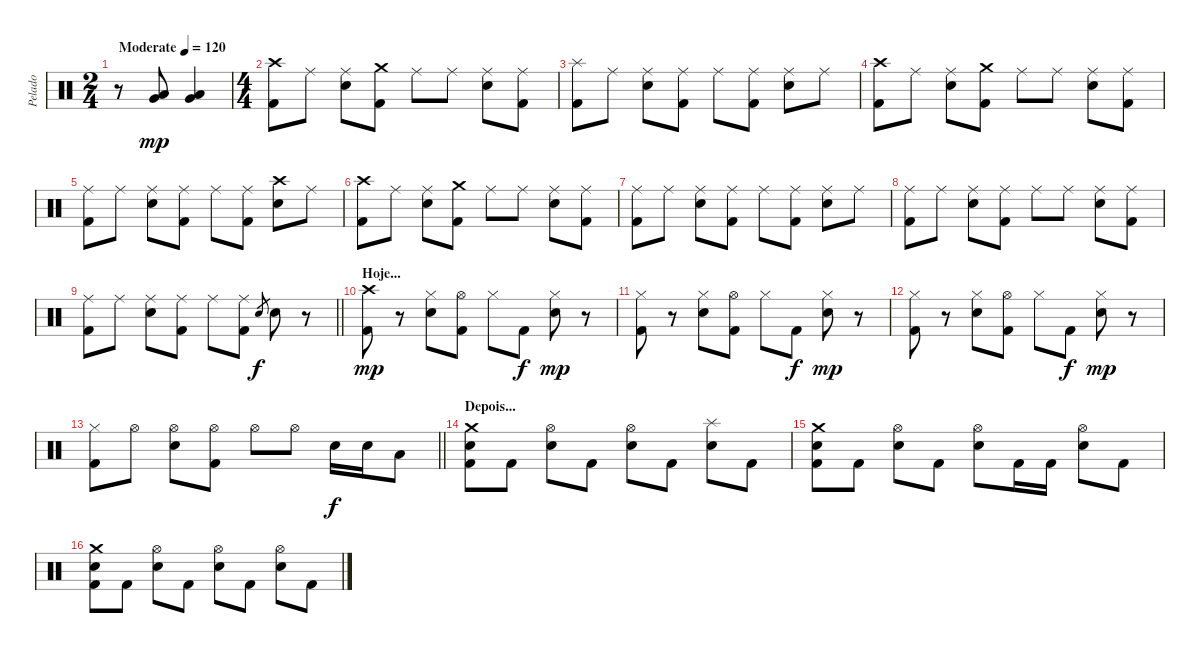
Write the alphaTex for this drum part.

\track ("Pelado" "Pelado") {instrument percussion}
\staff {score}
\articulation defaults
\ts (2 4)
\tempo (120 "Moderate")
\clef neutral
\ks c
r.8{dy mp} ("Low Tom (hit)" "Very Low Tom (hit)").8 ("Low Tom (hit)" "Very Low Tom (hit)").4 |
\ts (4 4)
("Crash high (hit)" "Kick (hit) 2").8 "Ride (middle)".8 ("Ride (middle)" "Electric Snare (hit)").8 ("Crash medium (hit)" "Kick (hit) 2").8 "Ride (middle)".8 "Ride (middle)".8 ("Ride (middle)" "Electric Snare (hit)").8 ("Ride (middle)" "Kick (hit) 2").8 |
("Splash (hit)" "Kick (hit) 2").8 "Ride (middle)".8 ("Ride (middle)" "Electric Snare (hit)").8 ("Ride (middle)" "Kick (hit) 2").8 "Ride (middle)".8 ("Ride (middle)" "Kick (hit) 2").8 ("Ride (middle)" "Electric Snare (hit)").8 "Ride (middle)".8 |
("Crash high (hit)" "Kick (hit) 2").8 "Ride (middle)".8 ("Ride (middle)" "Electric Snare (hit)").8 ("Crash medium (hit)" "Kick (hit) 2").8 "Ride (middle)".8 "Ride (middle)".8 ("Ride (middle)" "Electric Snare (hit)").8 ("Ride (middle)" "Kick (hit) 2").8 |
("Ride (middle)" "Kick (hit) 2").8 "Ride (middle)".8 ("Ride (middle)" "Electric Snare (hit)").8 ("Ride (middle)" "Kick (hit) 2").8 "Ride (middle)".8 ("Ride (middle)" "Kick (hit) 2").8 ("Crash high (hit)" "Electric Snare (hit)").8 "Ride (middle)".8 |
("Crash high (hit)" "Kick (hit) 2").8 "Ride (middle)".8 ("Ride (middle)" "Electric Snare (hit)").8 ("Crash medium (hit)" "Kick (hit) 2").8 "Ride (middle)".8 "Ride (middle)".8 ("Ride (middle)" "Electric Snare (hit)").8 ("Ride (middle)" "Kick (hit) 2").8 |
("Ride (middle)" "Kick (hit) 2").8 "Ride (middle)".8 ("Ride (middle)" "Electric Snare (hit)").8 ("Ride (middle)" "Kick (hit) 2").8 "Ride (middle)".8 ("Ride (middle)" "Kick (hit) 2").8 ("Ride (middle)" "Electric Snare (hit)").8 "Ride (middle)".8 |
("Ride (middle)" "Kick (hit) 2").8 "Ride (middle)".8 ("Ride (middle)" "Electric Snare (hit)").8 ("Ride (middle)" "Kick (hit) 2").8 "Ride (middle)".8 "Ride (middle)".8 ("Ride (middle)" "Electric Snare (hit)").8 ("Ride (middle)" "Kick (hit) 2").8 |
\barLineRight lightlight
("Ride (middle)" "Kick (hit) 2").8 "Ride (middle)".8 ("Ride (middle)" "Electric Snare (hit)").8 ("Ride (middle)" "Kick (hit) 2").8 "Ride (middle)".8 ("Ride (middle)" "Kick (hit) 2").8 "Electric Snare (hit)".8{gr dy f} "Electric Snare (hit)".8 r.8 |
\section ("" "Hoje...")
("Crash high (hit)" "Kick (hit) 2").8{dy mp} r.8 ("Hi-Hat (closed)" "Electric Snare (hit)").8 ("Hi-Hat (open)" "Kick (hit) 2").8 "Hi-Hat (closed)".8 "Kick (hit) 2".8{dy f} ("Hi-Hat (closed)" "Electric Snare (hit)").8{dy mp} r.8 |
("Hi-Hat (closed)" "Kick (hit) 2").8 r.8 ("Hi-Hat (closed)" "Electric Snare (hit)").8 ("Hi-Hat (open)" "Kick (hit) 2").8 "Hi-Hat (closed)".8 "Kick (hit) 2".8{dy f} ("Hi-Hat (closed)" "Electric Snare (hit)").8{dy mp} r.8 |
("Hi-Hat (closed)" "Kick (hit) 2").8 r.8 ("Hi-Hat (closed)" "Electric Snare (hit)").8 ("Hi-Hat (open)" "Kick (hit) 2").8 "Hi-Hat (closed)".8 "Kick (hit) 2".8{dy f} ("Hi-Hat (closed)" "Electric Snare (hit)").8{dy mp} r.8 |
\barLineRight lightlight
("Hi-Hat (closed)" "Kick (hit) 2").8 "Hi-Hat (open)".8 ("Hi-Hat (open)" "Electric Snare (hit)").8 ("Hi-Hat (open)" "Kick (hit) 2").8 "Hi-Hat (open)".8 "Hi-Hat (open)".8 "Electric Snare (hit)".16{dy f} "Electric Snare (hit)".16 "Low Tom (hit)".8 |
\section ("" "Depois...")
("Crash medium (hit)" "Electric Snare (hit)" "Kick (hit) 2").8 "Kick (hit) 2".8 ("Hi-Hat (open)" "Electric Snare (hit)").8 "Kick (hit) 2".8 ("Hi-Hat (open)" "Electric Snare (hit)").8 "Kick (hit) 2".8 ("Splash (hit)" "Electric Snare (hit)").8 "Kick (hit) 2".8 |
("Crash medium (hit)" "Electric Snare (hit)" "Kick (hit) 2").8 "Kick (hit) 2".8 ("Hi-Hat (open)" "Electric Snare (hit)").8 "Kick (hit) 2".8 ("Hi-Hat (open)" "Electric Snare (hit)").8 "Kick (hit) 2".16 "Kick (hit) 2".16 ("Hi-Hat (open)" "Electric Snare (hit)").8 "Kick (hit) 2".8 |
("Crash medium (hit)" "Electric Snare (hit)" "Kick (hit) 2").8 "Kick (hit) 2".8 ("Hi-Hat (open)" "Electric Snare (hit)").8 "Kick (hit) 2".8 ("Hi-Hat (open)" "Electric Snare (hit)").8 "Kick (hit) 2".8 ("Hi-Hat (open)" "Electric Snare (hit)").8 "Kick (hit) 2".8
